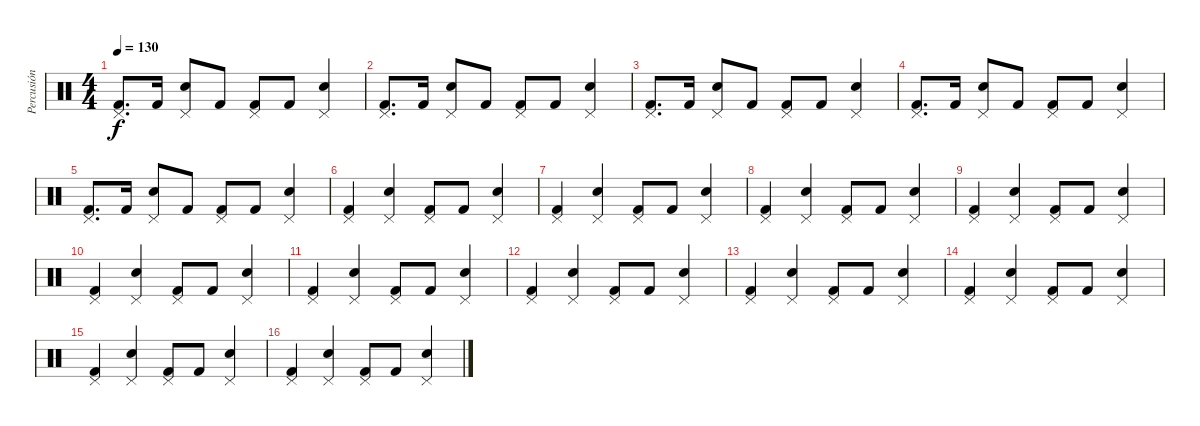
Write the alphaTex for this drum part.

\track ("Percusión" "Percusión") {solo instrument percussion}
\staff {score}
\articulation defaults
\ts (4 4)
\tempo 130
\clef neutral
\ks c
("Kick (hit) 2" "Pedal Hi-Hat (hit)").8{d dy f} "Kick (hit) 2".16 ("Electric Snare (hit)" "Pedal Hi-Hat (hit)").8 "Kick (hit) 2".8 ("Kick (hit) 2" "Pedal Hi-Hat (hit)").8 "Kick (hit) 2".8 ("Electric Snare (hit)" "Pedal Hi-Hat (hit)").4 |
("Kick (hit) 2" "Pedal Hi-Hat (hit)").8{d} "Kick (hit) 2".16 ("Electric Snare (hit)" "Pedal Hi-Hat (hit)").8 "Kick (hit) 2".8 ("Kick (hit) 2" "Pedal Hi-Hat (hit)").8 "Kick (hit) 2".8 ("Electric Snare (hit)" "Pedal Hi-Hat (hit)").4 |
("Kick (hit) 2" "Pedal Hi-Hat (hit)").8{d} "Kick (hit) 2".16 ("Electric Snare (hit)" "Pedal Hi-Hat (hit)").8 "Kick (hit) 2".8 ("Kick (hit) 2" "Pedal Hi-Hat (hit)").8 "Kick (hit) 2".8 ("Electric Snare (hit)" "Pedal Hi-Hat (hit)").4 |
("Kick (hit) 2" "Pedal Hi-Hat (hit)").8{d} "Kick (hit) 2".16 ("Electric Snare (hit)" "Pedal Hi-Hat (hit)").8 "Kick (hit) 2".8 ("Kick (hit) 2" "Pedal Hi-Hat (hit)").8 "Kick (hit) 2".8 ("Electric Snare (hit)" "Pedal Hi-Hat (hit)").4 |
("Kick (hit) 2" "Pedal Hi-Hat (hit)").8{d} "Kick (hit) 2".16 ("Electric Snare (hit)" "Pedal Hi-Hat (hit)").8 "Kick (hit) 2".8 ("Kick (hit) 2" "Pedal Hi-Hat (hit)").8 "Kick (hit) 2".8 ("Electric Snare (hit)" "Pedal Hi-Hat (hit)").4 |
("Kick (hit) 2" "Pedal Hi-Hat (hit)").4 ("Electric Snare (hit)" "Pedal Hi-Hat (hit)").4 ("Kick (hit) 2" "Pedal Hi-Hat (hit)").8 "Kick (hit) 2".8 ("Electric Snare (hit)" "Pedal Hi-Hat (hit)").4 |
("Kick (hit) 2" "Pedal Hi-Hat (hit)").4 ("Electric Snare (hit)" "Pedal Hi-Hat (hit)").4 ("Kick (hit) 2" "Pedal Hi-Hat (hit)").8 "Kick (hit) 2".8 ("Electric Snare (hit)" "Pedal Hi-Hat (hit)").4 |
("Kick (hit) 2" "Pedal Hi-Hat (hit)").4 ("Electric Snare (hit)" "Pedal Hi-Hat (hit)").4 ("Kick (hit) 2" "Pedal Hi-Hat (hit)").8 "Kick (hit) 2".8 ("Electric Snare (hit)" "Pedal Hi-Hat (hit)").4 |
("Kick (hit) 2" "Pedal Hi-Hat (hit)").4 ("Electric Snare (hit)" "Pedal Hi-Hat (hit)").4 ("Kick (hit) 2" "Pedal Hi-Hat (hit)").8 "Kick (hit) 2".8 ("Electric Snare (hit)" "Pedal Hi-Hat (hit)").4 |
("Kick (hit) 2" "Pedal Hi-Hat (hit)").4 ("Electric Snare (hit)" "Pedal Hi-Hat (hit)").4 ("Kick (hit) 2" "Pedal Hi-Hat (hit)").8 "Kick (hit) 2".8 ("Electric Snare (hit)" "Pedal Hi-Hat (hit)").4 |
("Kick (hit) 2" "Pedal Hi-Hat (hit)").4 ("Electric Snare (hit)" "Pedal Hi-Hat (hit)").4 ("Kick (hit) 2" "Pedal Hi-Hat (hit)").8 "Kick (hit) 2".8 ("Electric Snare (hit)" "Pedal Hi-Hat (hit)").4 |
("Kick (hit) 2" "Pedal Hi-Hat (hit)").4 ("Electric Snare (hit)" "Pedal Hi-Hat (hit)").4 ("Kick (hit) 2" "Pedal Hi-Hat (hit)").8 "Kick (hit) 2".8 ("Electric Snare (hit)" "Pedal Hi-Hat (hit)").4 |
("Kick (hit) 2" "Pedal Hi-Hat (hit)").4 ("Electric Snare (hit)" "Pedal Hi-Hat (hit)").4 ("Kick (hit) 2" "Pedal Hi-Hat (hit)").8 "Kick (hit) 2".8 ("Electric Snare (hit)" "Pedal Hi-Hat (hit)").4 |
("Kick (hit) 2" "Pedal Hi-Hat (hit)").4 ("Electric Snare (hit)" "Pedal Hi-Hat (hit)").4 ("Kick (hit) 2" "Pedal Hi-Hat (hit)").8 "Kick (hit) 2".8 ("Electric Snare (hit)" "Pedal Hi-Hat (hit)").4 |
("Kick (hit) 2" "Pedal Hi-Hat (hit)").4 ("Electric Snare (hit)" "Pedal Hi-Hat (hit)").4 ("Kick (hit) 2" "Pedal Hi-Hat (hit)").8 "Kick (hit) 2".8 ("Electric Snare (hit)" "Pedal Hi-Hat (hit)").4 |
("Kick (hit) 2" "Pedal Hi-Hat (hit)").4 ("Electric Snare (hit)" "Pedal Hi-Hat (hit)").4 ("Kick (hit) 2" "Pedal Hi-Hat (hit)").8 "Kick (hit) 2".8 ("Electric Snare (hit)" "Pedal Hi-Hat (hit)").4
